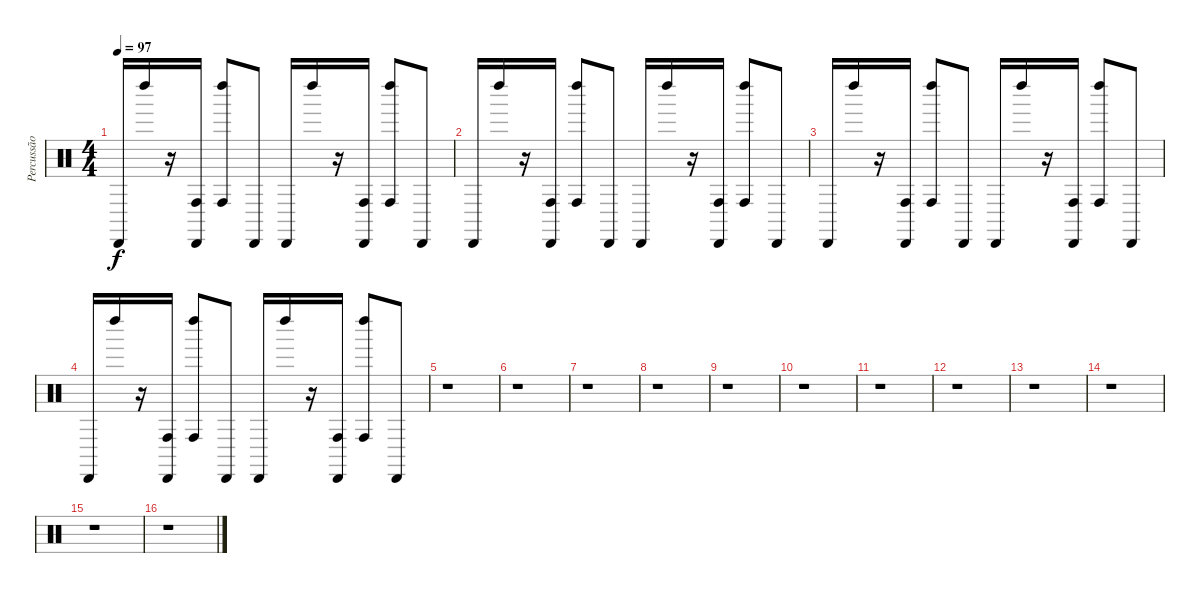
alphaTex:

\track ("Percussão" "Percussão") {instrument percussion}
\staff {score}
\articulation defaults
\ts (4 4)
\tempo 97
\clef neutral
\ks c "Cabasa (hit)".16{dy f} "Left Maraca (hit)".16
r.16 ("Cabasa (hit)" "Conga high (hit)").16 ("Left Maraca (hit)" "Conga high (hit)").8 "Cabasa (hit)".8 "Cabasa (hit)".16 "Left Maraca (hit)".16 r.16 ("Cabasa (hit)" "Conga high (hit)").16 ("Left Maraca (hit)" "Conga high (hit)").8 "Cabasa (hit)".8 |
"Cabasa (hit)".16 "Left Maraca (hit)".16 r.16 ("Cabasa (hit)" "Conga high (hit)").16 ("Left Maraca (hit)" "Conga high (hit)").8 "Cabasa (hit)".8 "Cabasa (hit)".16 "Left Maraca (hit)".16 r.16 ("Cabasa (hit)" "Conga high (hit)").16 ("Left Maraca (hit)" "Conga high (hit)").8 "Cabasa (hit)".8 |
"Cabasa (hit)".16 "Left Maraca (hit)".16 r.16 ("Cabasa (hit)" "Conga high (hit)").16 ("Left Maraca (hit)" "Conga high (hit)").8 "Cabasa (hit)".8 "Cabasa (hit)".16 "Left Maraca (hit)".16 r.16 ("Cabasa (hit)" "Conga high (hit)").16 ("Left Maraca (hit)" "Conga high (hit)").8 "Cabasa (hit)".8 |
"Cabasa (hit)".16 "Left Maraca (hit)".16 r.16 ("Cabasa (hit)" "Conga high (hit)").16 ("Left Maraca (hit)" "Conga high (hit)").8 "Cabasa (hit)".8 "Cabasa (hit)".16 "Left Maraca (hit)".16 r.16 ("Cabasa (hit)" "Conga high (hit)").16 ("Left Maraca (hit)" "Conga high (hit)").8 "Cabasa (hit)".8 |
r.1 |
r.1 |
r.1 |
r.1 |
r.1 |
r.1 |
r.1 |
r.1 |
r.1 |
r.1 |
r.1 |
r.1
